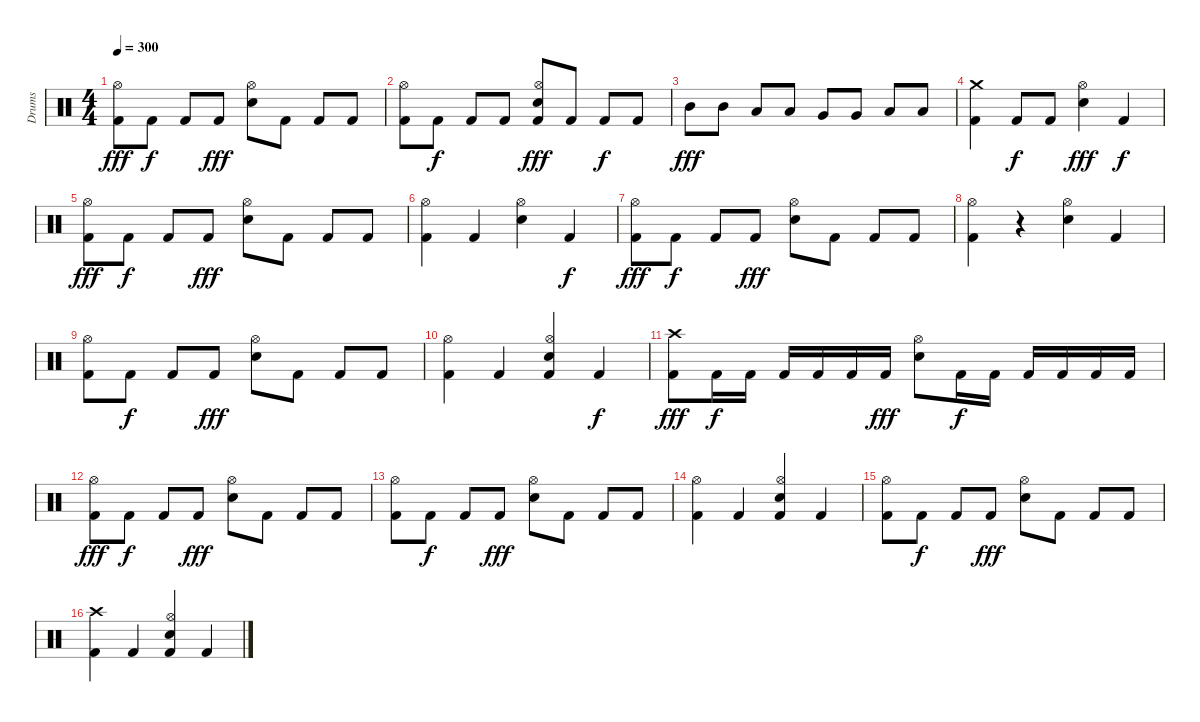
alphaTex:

\track ("Drums" "Drums") {instrument percussion}
\staff {score}
\articulation defaults
\ts (4 4)
\tempo 300
\clef neutral
\ks c
("Kick (hit) 2" "Hi-Hat (open)").8{dy fff} "Kick (hit) 2".8{dy f} "Kick (hit) 2".8 "Kick (hit) 2".8{dy fff} ("Snare (hit) 2" "Hi-Hat (open)").8 "Kick (hit) 2".8 "Kick (hit) 2".8 "Kick (hit) 2".8 |
("Kick (hit) 2" "Hi-Hat (open)").8 "Kick (hit) 2".8{dy f} "Kick (hit) 2".8 "Kick (hit) 2".8 ("Snare (hit) 2" "Hi-Hat (open)" "Kick (hit) 2").8{dy fff} "Kick (hit) 2".8 "Kick (hit) 2".8{dy f} "Kick (hit) 2".8 |
"Mid Tom (hit)".8{dy fff} "Mid Tom (hit)".8 "Low Tom (hit)".8 "Low Tom (hit)".8 "Very Low Tom (hit)".8 "Very Low Tom (hit)".8 "Low Floor Tom (hit)".8 "Low Floor Tom (hit)".8 |
("Kick (hit) 2" "Crash medium (hit)").4 "Kick (hit) 2".8{dy f} "Kick (hit) 2".8 ("Snare (hit) 2" "Hi-Hat (open)").4{dy fff} "Kick (hit) 2".4{dy f} |
("Kick (hit) 2" "Hi-Hat (open)").8{dy fff} "Kick (hit) 2".8{dy f} "Kick (hit) 2".8 "Kick (hit) 2".8{dy fff} ("Snare (hit) 2" "Hi-Hat (open)").8 "Kick (hit) 2".8 "Kick (hit) 2".8 "Kick (hit) 2".8 |
("Kick (hit) 2" "Hi-Hat (open)").4 "Kick (hit) 2".4 ("Snare (hit) 2" "Hi-Hat (open)").4 "Kick (hit) 2".4{dy f} |
("Kick (hit) 2" "Hi-Hat (open)").8{dy fff} "Kick (hit) 2".8{dy f} "Kick (hit) 2".8 "Kick (hit) 2".8{dy fff} ("Snare (hit) 2" "Hi-Hat (open)").8 "Kick (hit) 2".8 "Kick (hit) 2".8 "Kick (hit) 2".8 |
("Kick (hit) 2" "Hi-Hat (open)").4 r.4 ("Snare (hit) 2" "Hi-Hat (open)").4 "Kick (hit) 2".4 |
("Kick (hit) 2" "Hi-Hat (open)").8 "Kick (hit) 2".8{dy f} "Kick (hit) 2".8 "Kick (hit) 2".8{dy fff} ("Snare (hit) 2" "Hi-Hat (open)").8 "Kick (hit) 2".8 "Kick (hit) 2".8 "Kick (hit) 2".8 |
("Kick (hit) 2" "Hi-Hat (open)").4 "Kick (hit) 2".4 ("Snare (hit) 2" "Hi-Hat (open)" "Kick (hit) 2").4 "Kick (hit) 2".4{dy f} |
("Kick (hit) 2" "Crash high (hit)").8{dy fff} "Kick (hit) 2".16{dy f} "Kick (hit) 2".16 "Kick (hit) 2".16 "Kick (hit) 2".16 "Kick (hit) 2".16 "Kick (hit) 2".16{dy fff} ("Snare (hit) 2" "Hi-Hat (open)").8 "Kick (hit) 2".16{dy f} "Kick (hit) 2".16 "Kick (hit) 2".16 "Kick (hit) 2".16 "Kick (hit) 2".16 "Kick (hit) 2".16 |
("Kick (hit) 2" "Hi-Hat (open)").8{dy fff} "Kick (hit) 2".8{dy f} "Kick (hit) 2".8 "Kick (hit) 2".8{dy fff} ("Snare (hit) 2" "Hi-Hat (open)").8 "Kick (hit) 2".8 "Kick (hit) 2".8 "Kick (hit) 2".8 |
("Kick (hit) 2" "Hi-Hat (open)").8 "Kick (hit) 2".8{dy f} "Kick (hit) 2".8 "Kick (hit) 2".8{dy fff} ("Snare (hit) 2" "Hi-Hat (open)").8 "Kick (hit) 2".8 "Kick (hit) 2".8 "Kick (hit) 2".8 |
("Kick (hit) 2" "Hi-Hat (open)").4 "Kick (hit) 2".4 ("Snare (hit) 2" "Hi-Hat (open)" "Kick (hit) 2").4 "Kick (hit) 2".4 |
("Kick (hit) 2" "Hi-Hat (open)").8 "Kick (hit) 2".8{dy f} "Kick (hit) 2".8 "Kick (hit) 2".8{dy fff} ("Snare (hit) 2" "Hi-Hat (open)").8 "Kick (hit) 2".8 "Kick (hit) 2".8 "Kick (hit) 2".8 |
("Kick (hit) 2" "Crash high (hit)").4 "Kick (hit) 2".4 ("Snare (hit) 2" "Hi-Hat (open)" "Kick (hit) 2").4 "Kick (hit) 2".4
